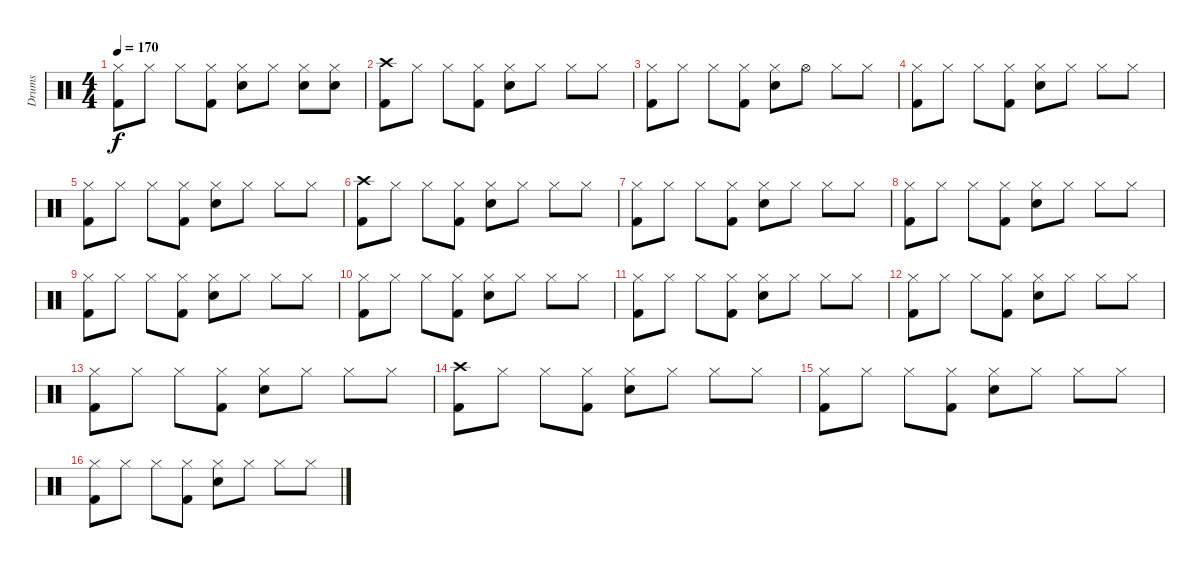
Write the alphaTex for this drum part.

\track ("Drums" "Drums") {instrument percussion}
\staff {score}
\articulation defaults
\ts (4 4)
\tempo 170
\clef neutral
\ks c
("Hi-Hat (closed)" "Kick (hit) 2").8{dy f} "Hi-Hat (closed)".8 "Hi-Hat (closed)".8 ("Hi-Hat (closed)" "Kick (hit) 2").8 ("Hi-Hat (closed)" "Snare (hit) 2").8 "Hi-Hat (closed)".8 ("Hi-Hat (closed)" "Snare (hit) 2").8 ("Hi-Hat (closed)" "Snare (hit) 2").8 |
("Crash high (hit)" "Kick (hit) 2").8 "Hi-Hat (closed)".8 "Hi-Hat (closed)".8 ("Hi-Hat (closed)" "Kick (hit) 2").8 ("Hi-Hat (closed)" "Snare (hit) 2").8 "Hi-Hat (closed)".8 "Hi-Hat (closed)".8 "Hi-Hat (closed)".8 |
("Hi-Hat (closed)" "Kick (hit) 2").8 "Hi-Hat (closed)".8 "Hi-Hat (closed)".8 ("Hi-Hat (closed)" "Kick (hit) 2").8 ("Hi-Hat (closed)" "Snare (hit) 2").8 "Hi-Hat (open)".8 "Hi-Hat (closed)".8 "Hi-Hat (closed)".8 |
("Hi-Hat (closed)" "Kick (hit) 2").8 "Hi-Hat (closed)".8 "Hi-Hat (closed)".8 ("Hi-Hat (closed)" "Kick (hit) 2").8 ("Hi-Hat (closed)" "Snare (hit) 2").8 "Hi-Hat (closed)".8 "Hi-Hat (closed)".8 "Hi-Hat (closed)".8 |
("Hi-Hat (closed)" "Kick (hit) 2").8 "Hi-Hat (closed)".8 "Hi-Hat (closed)".8 ("Hi-Hat (closed)" "Kick (hit) 2").8 ("Hi-Hat (closed)" "Snare (hit) 2").8 "Hi-Hat (closed)".8 "Hi-Hat (closed)".8 "Hi-Hat (closed)".8 |
("Crash high (hit)" "Kick (hit) 2").8 "Hi-Hat (closed)".8 "Hi-Hat (closed)".8 ("Hi-Hat (closed)" "Kick (hit) 2").8 ("Hi-Hat (closed)" "Snare (hit) 2").8 "Hi-Hat (closed)".8 "Hi-Hat (closed)".8 "Hi-Hat (closed)".8 |
("Hi-Hat (closed)" "Kick (hit) 2").8 "Hi-Hat (closed)".8 "Hi-Hat (closed)".8 ("Hi-Hat (closed)" "Kick (hit) 2").8 ("Hi-Hat (closed)" "Snare (hit) 2").8 "Hi-Hat (closed)".8 "Hi-Hat (closed)".8 "Hi-Hat (closed)".8 |
("Hi-Hat (closed)" "Kick (hit) 2").8 "Hi-Hat (closed)".8 "Hi-Hat (closed)".8 ("Hi-Hat (closed)" "Kick (hit) 2").8 ("Hi-Hat (closed)" "Snare (hit) 2").8 "Hi-Hat (closed)".8 "Hi-Hat (closed)".8 "Hi-Hat (closed)".8 |
("Hi-Hat (closed)" "Kick (hit) 2").8 "Hi-Hat (closed)".8 "Hi-Hat (closed)".8 ("Hi-Hat (closed)" "Kick (hit) 2").8 ("Hi-Hat (closed)" "Snare (hit) 2").8 "Hi-Hat (closed)".8 "Hi-Hat (closed)".8 "Hi-Hat (closed)".8 |
("Hi-Hat (closed)" "Kick (hit) 2").8 "Hi-Hat (closed)".8 "Hi-Hat (closed)".8 ("Hi-Hat (closed)" "Kick (hit) 2").8 ("Hi-Hat (closed)" "Snare (hit) 2").8 "Hi-Hat (closed)".8 "Hi-Hat (closed)".8 "Hi-Hat (closed)".8 |
("Hi-Hat (closed)" "Kick (hit) 2").8 "Hi-Hat (closed)".8 "Hi-Hat (closed)".8 ("Hi-Hat (closed)" "Kick (hit) 2").8 ("Hi-Hat (closed)" "Snare (hit) 2").8 "Hi-Hat (closed)".8 "Hi-Hat (closed)".8 "Hi-Hat (closed)".8 |
("Hi-Hat (closed)" "Kick (hit) 2").8 "Hi-Hat (closed)".8 "Hi-Hat (closed)".8 ("Hi-Hat (closed)" "Kick (hit) 2").8 ("Hi-Hat (closed)" "Snare (hit) 2").8 "Hi-Hat (closed)".8 "Hi-Hat (closed)".8 "Hi-Hat (closed)".8 |
("Hi-Hat (closed)" "Kick (hit) 2").8 "Hi-Hat (closed)".8 "Hi-Hat (closed)".8 ("Hi-Hat (closed)" "Kick (hit) 2").8 ("Hi-Hat (closed)" "Snare (hit) 2").8 "Hi-Hat (closed)".8 "Hi-Hat (closed)".8 "Hi-Hat (closed)".8 |
("Crash high (hit)" "Kick (hit) 2").8 "Hi-Hat (closed)".8 "Hi-Hat (closed)".8 ("Hi-Hat (closed)" "Kick (hit) 2").8 ("Hi-Hat (closed)" "Snare (hit) 2").8 "Hi-Hat (closed)".8 "Hi-Hat (closed)".8 "Hi-Hat (closed)".8 |
("Hi-Hat (closed)" "Kick (hit) 2").8 "Hi-Hat (closed)".8 "Hi-Hat (closed)".8 ("Hi-Hat (closed)" "Kick (hit) 2").8 ("Hi-Hat (closed)" "Snare (hit) 2").8 "Hi-Hat (closed)".8 "Hi-Hat (closed)".8 "Hi-Hat (closed)".8 |
("Hi-Hat (closed)" "Kick (hit) 2").8 "Hi-Hat (closed)".8 "Hi-Hat (closed)".8 ("Hi-Hat (closed)" "Kick (hit) 2").8 ("Hi-Hat (closed)" "Snare (hit) 2").8 "Hi-Hat (closed)".8 "Hi-Hat (closed)".8 "Hi-Hat (closed)".8
